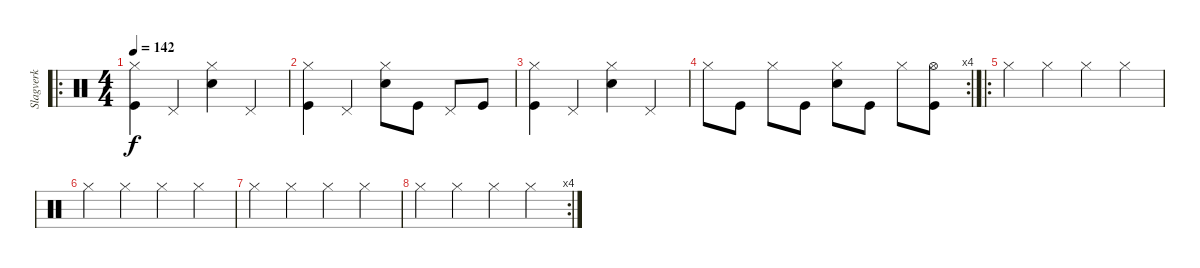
\track ("Slagverk" "Slagverk") {instrument percussion}
\staff {score}
\articulation defaults
\ro
\ts (4 4)
\tempo 142
\clef neutral
\ks c
("Hi-Hat (closed)" "Kick (hit)").4{dy f} "Pedal Hi-Hat (hit)".4 ("Hi-Hat (closed)" "Snare (hit) 2").4 "Pedal Hi-Hat (hit)".4 |
("Hi-Hat (closed)" "Kick (hit)").4 "Pedal Hi-Hat (hit)".4 ("Hi-Hat (closed)" "Snare (hit) 2").8 "Kick (hit)".8 "Pedal Hi-Hat (hit)".8 "Kick (hit)".8 |
("Hi-Hat (closed)" "Kick (hit)").4 "Pedal Hi-Hat (hit)".4 ("Hi-Hat (closed)" "Snare (hit) 2").4 "Pedal Hi-Hat (hit)".4 |
\rc 4 "Hi-Hat (closed)".8 "Kick (hit)".8 "Hi-Hat (closed)".8 "Kick (hit)".8
("Hi-Hat (closed)" "Snare (hit) 2").8 "Kick (hit)".8 "Hi-Hat (closed)".8 ("Hi-Hat (open)" "Kick (hit)").8 |
\ro "Hi-Hat (closed)".4 "Hi-Hat (closed)".4 "Hi-Hat (closed)".4 "Hi-Hat (closed)".4
|
"Hi-Hat (closed)".4 "Hi-Hat (closed)".4 "Hi-Hat (closed)".4 "Hi-Hat (closed)".4 |
"Hi-Hat (closed)".4 "Hi-Hat (closed)".4 "Hi-Hat (closed)".4 "Hi-Hat (closed)".4 |
\rc 4 "Hi-Hat (closed)".4 "Hi-Hat (closed)".4 "Hi-Hat (closed)".4 "Hi-Hat (closed)".4
